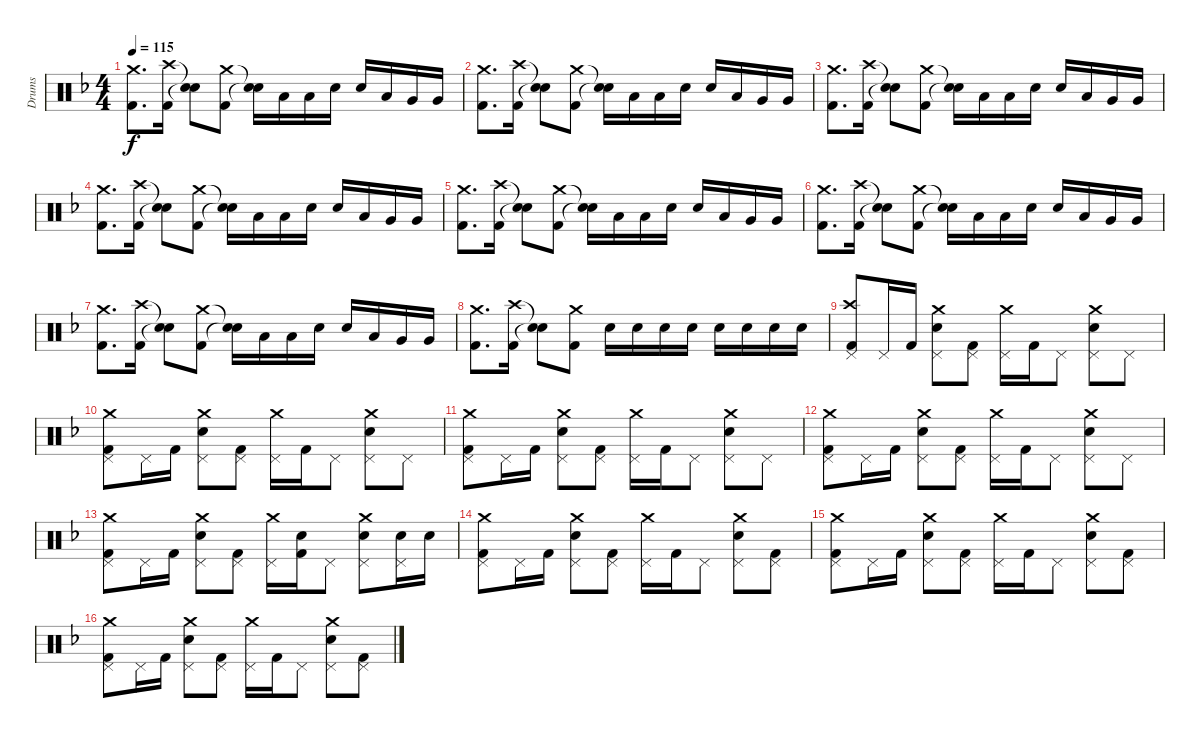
\track ("Drums" "Drums") {instrument percussion}
\staff {score}
\articulation defaults
\ts (4 4)
\tempo 115
\clef neutral
\ks dminor
("Crash medium (hit)" "Kick (hit) 2").8{d dy f} ("Crash high (hit)" "Kick (hit) 2").16 ("Snare (hit)"{t} "Snare (hit)"{t}).8 ("Crash medium (hit)" "Kick (hit) 2").8 ("Snare (hit)"{t} "Snare (hit)"{t}).16 "Low Tom (hit)".16 "Low Tom (hit)".16 "Electric Snare (hit)".16 "Electric Snare (hit)".16 "Low Tom (hit)".16 "Very Low Tom (hit)".16 "Very Low Tom (hit)".16 |
("Crash medium (hit)" "Kick (hit) 2").8{d} ("Crash high (hit)" "Kick (hit) 2").16 ("Snare (hit)"{t} "Snare (hit)"{t}).8 ("Crash medium (hit)" "Kick (hit) 2").8 ("Snare (hit)"{t} "Snare (hit)"{t}).16 "Low Tom (hit)".16 "Low Tom (hit)".16 "Electric Snare (hit)".16 "Electric Snare (hit)".16 "Low Tom (hit)".16 "Very Low Tom (hit)".16 "Very Low Tom (hit)".16 |
("Crash medium (hit)" "Kick (hit) 2").8{d} ("Crash high (hit)" "Kick (hit) 2").16 ("Snare (hit)"{t} "Snare (hit)"{t}).8 ("Crash medium (hit)" "Kick (hit) 2").8 ("Snare (hit)"{t} "Snare (hit)"{t}).16 "Low Tom (hit)".16 "Low Tom (hit)".16 "Electric Snare (hit)".16 "Electric Snare (hit)".16 "Low Tom (hit)".16 "Very Low Tom (hit)".16 "Very Low Tom (hit)".16 |
("Crash medium (hit)" "Kick (hit) 2").8{d} ("Crash high (hit)" "Kick (hit) 2").16 ("Snare (hit)"{t} "Snare (hit)"{t}).8 ("Crash medium (hit)" "Kick (hit) 2").8 ("Snare (hit)"{t} "Snare (hit)"{t}).16 "Low Tom (hit)".16 "Low Tom (hit)".16 "Electric Snare (hit)".16 "Electric Snare (hit)".16 "Low Tom (hit)".16 "Very Low Tom (hit)".16 "Very Low Tom (hit)".16 |
("Crash medium (hit)" "Kick (hit) 2").8{d} ("Crash high (hit)" "Kick (hit) 2").16 ("Snare (hit)"{t} "Snare (hit)"{t}).8 ("Crash medium (hit)" "Kick (hit) 2").8 ("Snare (hit)"{t} "Snare (hit)"{t}).16 "Low Tom (hit)".16 "Low Tom (hit)".16 "Electric Snare (hit)".16 "Electric Snare (hit)".16 "Low Tom (hit)".16 "Very Low Tom (hit)".16 "Very Low Tom (hit)".16 |
("Crash medium (hit)" "Kick (hit) 2").8{d} ("Crash high (hit)" "Kick (hit) 2").16 ("Snare (hit)"{t} "Snare (hit)"{t}).8 ("Crash medium (hit)" "Kick (hit) 2").8 ("Snare (hit)"{t} "Snare (hit)"{t}).16 "Low Tom (hit)".16 "Low Tom (hit)".16 "Electric Snare (hit)".16 "Electric Snare (hit)".16 "Low Tom (hit)".16 "Very Low Tom (hit)".16 "Very Low Tom (hit)".16 |
("Crash medium (hit)" "Kick (hit) 2").8{d} ("Crash high (hit)" "Kick (hit) 2").16 ("Snare (hit)"{t} "Snare (hit)"{t}).8 ("Crash medium (hit)" "Kick (hit) 2").8 ("Snare (hit)"{t} "Snare (hit)"{t}).16 "Low Tom (hit)".16 "Low Tom (hit)".16 "Electric Snare (hit)".16 "Electric Snare (hit)".16 "Low Tom (hit)".16 "Very Low Tom (hit)".16 "Very Low Tom (hit)".16 |
("Crash medium (hit)" "Kick (hit) 2").8{d} ("Crash high (hit)" "Kick (hit) 2").16 ("Snare (hit)"{t} "Snare (hit)"{t}).8 ("Crash medium (hit)" "Kick (hit) 2").8 "Electric Snare (hit)".16 "Electric Snare (hit)".16 "Electric Snare (hit)".16 "Electric Snare (hit)".16 "Electric Snare (hit)".16 "Electric Snare (hit)".16 "Electric Snare (hit)".16 "Electric Snare (hit)".16 |
("Crash high (hit)" "Pedal Hi-Hat (hit)" "Kick (hit) 2").8 "Pedal Hi-Hat (hit)".16 "Kick (hit) 2".16 ("Crash medium (hit)" "Electric Snare (hit)" "Pedal Hi-Hat (hit)").8 ("Pedal Hi-Hat (hit)" "Kick (hit) 2").8 ("Crash medium (hit)" "Pedal Hi-Hat (hit)").16 "Kick (hit) 2".16 "Pedal Hi-Hat (hit)".8 ("Crash medium (hit)" "Electric Snare (hit)" "Pedal Hi-Hat (hit)").8 "Pedal Hi-Hat (hit)".8 |
("Crash medium (hit)" "Pedal Hi-Hat (hit)" "Kick (hit) 2").8 "Pedal Hi-Hat (hit)".16 "Kick (hit) 2".16 ("Crash medium (hit)" "Electric Snare (hit)" "Pedal Hi-Hat (hit)").8 ("Pedal Hi-Hat (hit)" "Kick (hit) 2").8 ("Crash medium (hit)" "Pedal Hi-Hat (hit)").16 "Kick (hit) 2".16 "Pedal Hi-Hat (hit)".8 ("Crash medium (hit)" "Electric Snare (hit)" "Pedal Hi-Hat (hit)").8 "Pedal Hi-Hat (hit)".8 |
("Crash medium (hit)" "Pedal Hi-Hat (hit)" "Kick (hit) 2").8 "Pedal Hi-Hat (hit)".16 "Kick (hit) 2".16 ("Crash medium (hit)" "Electric Snare (hit)" "Pedal Hi-Hat (hit)").8 ("Pedal Hi-Hat (hit)" "Kick (hit) 2").8 ("Crash medium (hit)" "Pedal Hi-Hat (hit)").16 "Kick (hit) 2".16 "Pedal Hi-Hat (hit)".8 ("Crash medium (hit)" "Electric Snare (hit)" "Pedal Hi-Hat (hit)").8 "Pedal Hi-Hat (hit)".8 |
("Crash medium (hit)" "Pedal Hi-Hat (hit)" "Kick (hit) 2").8 "Pedal Hi-Hat (hit)".16 "Kick (hit) 2".16 ("Crash medium (hit)" "Electric Snare (hit)" "Pedal Hi-Hat (hit)").8 ("Pedal Hi-Hat (hit)" "Kick (hit) 2").8 ("Crash medium (hit)" "Pedal Hi-Hat (hit)").16 "Kick (hit) 2".16 "Pedal Hi-Hat (hit)".8 ("Crash medium (hit)" "Electric Snare (hit)" "Pedal Hi-Hat (hit)").8 "Pedal Hi-Hat (hit)".8 |
("Crash medium (hit)" "Pedal Hi-Hat (hit)" "Kick (hit) 2").8 "Pedal Hi-Hat (hit)".16 "Kick (hit) 2".16 ("Crash medium (hit)" "Electric Snare (hit)" "Pedal Hi-Hat (hit)").8 ("Pedal Hi-Hat (hit)" "Kick (hit) 2").8 ("Crash medium (hit)" "Pedal Hi-Hat (hit)").16 ("Electric Snare (hit)" "Kick (hit) 2").16 "Pedal Hi-Hat (hit)".8 ("Crash medium (hit)" "Electric Snare (hit)" "Pedal Hi-Hat (hit)").8 ("Electric Snare (hit)" "Pedal Hi-Hat (hit)").16 "Electric Snare (hit)".16 |
("Crash medium (hit)" "Pedal Hi-Hat (hit)" "Kick (hit) 2").8 "Pedal Hi-Hat (hit)".16 "Kick (hit) 2".16 ("Crash medium (hit)" "Electric Snare (hit)" "Pedal Hi-Hat (hit)").8 ("Pedal Hi-Hat (hit)" "Kick (hit) 2").8 ("Crash medium (hit)" "Pedal Hi-Hat (hit)").16 "Kick (hit) 2".16 "Pedal Hi-Hat (hit)".8 ("Crash medium (hit)" "Electric Snare (hit)" "Pedal Hi-Hat (hit)").8 ("Pedal Hi-Hat (hit)" "Kick (hit) 2").8 |
("Crash medium (hit)" "Pedal Hi-Hat (hit)" "Kick (hit) 2").8 "Pedal Hi-Hat (hit)".16 "Kick (hit) 2".16 ("Crash medium (hit)" "Electric Snare (hit)" "Pedal Hi-Hat (hit)").8 ("Pedal Hi-Hat (hit)" "Kick (hit) 2").8 ("Crash medium (hit)" "Pedal Hi-Hat (hit)").16 "Kick (hit) 2".16 "Pedal Hi-Hat (hit)".8 ("Crash medium (hit)" "Electric Snare (hit)" "Pedal Hi-Hat (hit)").8 ("Pedal Hi-Hat (hit)" "Kick (hit) 2").8 |
("Crash medium (hit)" "Pedal Hi-Hat (hit)" "Kick (hit) 2").8 "Pedal Hi-Hat (hit)".16 "Kick (hit) 2".16 ("Crash medium (hit)" "Electric Snare (hit)" "Pedal Hi-Hat (hit)").8 ("Pedal Hi-Hat (hit)" "Kick (hit) 2").8 ("Crash medium (hit)" "Pedal Hi-Hat (hit)").16 "Kick (hit) 2".16 "Pedal Hi-Hat (hit)".8 ("Crash medium (hit)" "Electric Snare (hit)" "Pedal Hi-Hat (hit)").8 ("Pedal Hi-Hat (hit)" "Kick (hit) 2").8
